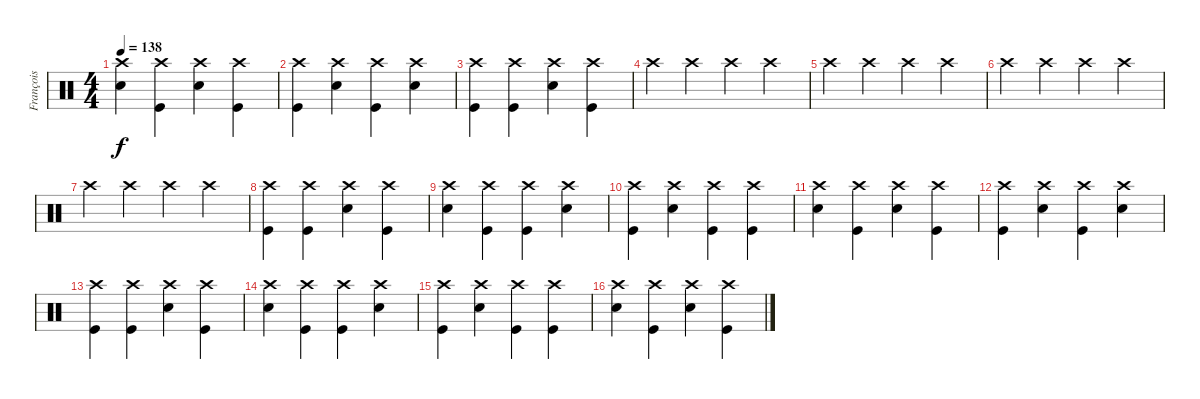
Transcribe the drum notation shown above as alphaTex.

\track ("François" "François") {instrument percussion}
\staff {score}
\articulation defaults
\ts (4 4)
\tempo 138
\clef neutral
\ks c
("Crash high (hit)" "Electric Snare (hit)").4{dy f} ("Crash high (hit)" "Kick (hit)").4 ("Crash high (hit)" "Electric Snare (hit)").4 ("Crash high (hit)" "Kick (hit)").4 |
("Crash high (hit)" "Kick (hit)").4 ("Crash high (hit)" "Electric Snare (hit)").4 ("Crash high (hit)" "Kick (hit)").4 ("Crash high (hit)" "Electric Snare (hit)").4 |
("Crash high (hit)" "Kick (hit)").4 ("Crash high (hit)" "Kick (hit)").4 ("Crash high (hit)" "Electric Snare (hit)").4 ("Crash high (hit)" "Kick (hit)").4 |
"Crash high (hit)".4 "Crash high (hit)".4 "Crash high (hit)".4 "Crash high (hit)".4 |
"Crash high (hit)".4 "Crash high (hit)".4 "Crash high (hit)".4 "Crash high (hit)".4 |
"Crash high (hit)".4 "Crash high (hit)".4 "Crash high (hit)".4 "Crash high (hit)".4 |
"Crash high (hit)".4 "Crash high (hit)".4 "Crash high (hit)".4 "Crash high (hit)".4 |
("Crash high (hit)" "Kick (hit)").4 ("Crash high (hit)" "Kick (hit)").4 ("Crash high (hit)" "Electric Snare (hit)").4 ("Crash high (hit)" "Kick (hit)").4 |
("Crash high (hit)" "Electric Snare (hit)").4 ("Crash high (hit)" "Kick (hit)").4 ("Crash high (hit)" "Kick (hit)").4 ("Crash high (hit)" "Electric Snare (hit)").4 |
("Crash high (hit)" "Kick (hit)").4 ("Crash high (hit)" "Electric Snare (hit)").4 ("Crash high (hit)" "Kick (hit)").4 ("Crash high (hit)" "Kick (hit)").4 |
("Crash high (hit)" "Electric Snare (hit)").4 ("Crash high (hit)" "Kick (hit)").4 ("Crash high (hit)" "Electric Snare (hit)").4 ("Crash high (hit)" "Kick (hit)").4 |
("Crash high (hit)" "Kick (hit)").4 ("Crash high (hit)" "Electric Snare (hit)").4 ("Crash high (hit)" "Kick (hit)").4 ("Crash high (hit)" "Electric Snare (hit)").4 |
("Crash high (hit)" "Kick (hit)").4 ("Crash high (hit)" "Kick (hit)").4 ("Crash high (hit)" "Electric Snare (hit)").4 ("Crash high (hit)" "Kick (hit)").4 |
("Crash high (hit)" "Electric Snare (hit)").4 ("Crash high (hit)" "Kick (hit)").4 ("Crash high (hit)" "Kick (hit)").4 ("Crash high (hit)" "Electric Snare (hit)").4 |
("Crash high (hit)" "Kick (hit)").4 ("Crash high (hit)" "Electric Snare (hit)").4 ("Crash high (hit)" "Kick (hit)").4 ("Crash high (hit)" "Kick (hit)").4 |
("Crash high (hit)" "Electric Snare (hit)").4 ("Crash high (hit)" "Kick (hit)").4 ("Crash high (hit)" "Electric Snare (hit)").4 ("Crash high (hit)" "Kick (hit)").4
